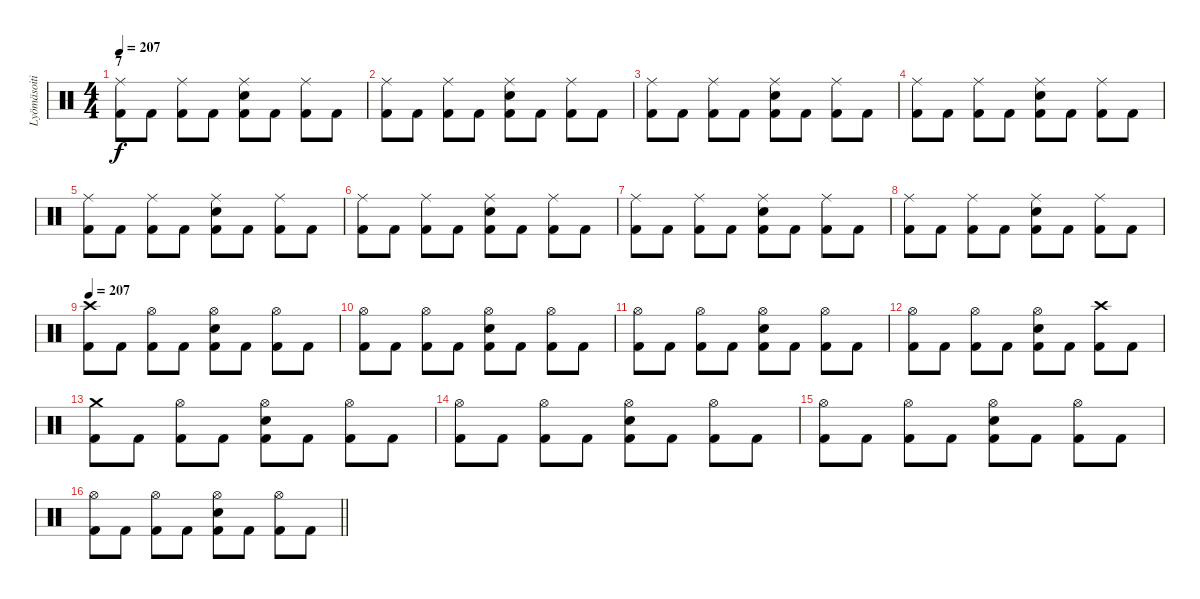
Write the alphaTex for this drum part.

\track ("Lyömäsoitin" "Lyömäsoiti") {instrument percussion}
\staff {score}
\articulation defaults
\ts (4 4)
\section ("" "7")
\tempo 207
\clef neutral
\ks c
("Ride (middle)" "Kick (hit) 2").8{dy f} "Kick (hit) 2".8 ("Ride (middle)" "Kick (hit) 2").8 "Kick (hit) 2".8 ("Ride (middle)" "Snare (hit) 2" "Kick (hit) 2").8 "Kick (hit) 2".8 ("Ride (middle)" "Kick (hit) 2").8 "Kick (hit) 2".8 |
("Ride (middle)" "Kick (hit) 2").8 "Kick (hit) 2".8 ("Ride (middle)" "Kick (hit) 2").8 "Kick (hit) 2".8 ("Ride (middle)" "Snare (hit) 2" "Kick (hit) 2").8 "Kick (hit) 2".8 ("Ride (middle)" "Kick (hit) 2").8 "Kick (hit) 2".8 |
("Ride (middle)" "Kick (hit) 2").8 "Kick (hit) 2".8 ("Ride (middle)" "Kick (hit) 2").8 "Kick (hit) 2".8 ("Ride (middle)" "Snare (hit) 2" "Kick (hit) 2").8 "Kick (hit) 2".8 ("Ride (middle)" "Kick (hit) 2").8 "Kick (hit) 2".8 |
("Ride (middle)" "Kick (hit) 2").8 "Kick (hit) 2".8 ("Ride (middle)" "Kick (hit) 2").8 "Kick (hit) 2".8 ("Ride (middle)" "Snare (hit) 2" "Kick (hit) 2").8 "Kick (hit) 2".8 ("Ride (middle)" "Kick (hit) 2").8 "Kick (hit) 2".8 |
("Ride (middle)" "Kick (hit) 2").8 "Kick (hit) 2".8 ("Ride (middle)" "Kick (hit) 2").8 "Kick (hit) 2".8 ("Ride (middle)" "Snare (hit) 2" "Kick (hit) 2").8 "Kick (hit) 2".8 ("Ride (middle)" "Kick (hit) 2").8 "Kick (hit) 2".8 |
("Ride (middle)" "Kick (hit) 2").8 "Kick (hit) 2".8 ("Ride (middle)" "Kick (hit) 2").8 "Kick (hit) 2".8 ("Ride (middle)" "Snare (hit) 2" "Kick (hit) 2").8 "Kick (hit) 2".8 ("Ride (middle)" "Kick (hit) 2").8 "Kick (hit) 2".8 |
("Ride (middle)" "Kick (hit) 2").8 "Kick (hit) 2".8 ("Ride (middle)" "Kick (hit) 2").8 "Kick (hit) 2".8 ("Ride (middle)" "Snare (hit) 2" "Kick (hit) 2").8 "Kick (hit) 2".8 ("Ride (middle)" "Kick (hit) 2").8 "Kick (hit) 2".8 |
("Ride (middle)" "Kick (hit) 2").8 "Kick (hit) 2".8 ("Ride (middle)" "Kick (hit) 2").8 "Kick (hit) 2".8 ("Ride (middle)" "Snare (hit) 2" "Kick (hit) 2").8 "Kick (hit) 2".8 ("Ride (middle)" "Kick (hit) 2").8 "Kick (hit) 2".8 |
\tempo 207
("Crash high (hit)" "Kick (hit) 2").8 "Kick (hit) 2".8 ("Hi-Hat (open)" "Kick (hit) 2").8 "Kick (hit) 2".8 ("Hi-Hat (open)" "Snare (hit) 2" "Kick (hit) 2").8 "Kick (hit) 2".8 ("Hi-Hat (open)" "Kick (hit) 2").8 "Kick (hit) 2".8 |
("Hi-Hat (open)" "Kick (hit) 2").8 "Kick (hit) 2".8 ("Hi-Hat (open)" "Kick (hit) 2").8 "Kick (hit) 2".8 ("Hi-Hat (open)" "Snare (hit) 2" "Kick (hit) 2").8 "Kick (hit) 2".8 ("Hi-Hat (open)" "Kick (hit) 2").8 "Kick (hit) 2".8 |
("Hi-Hat (open)" "Kick (hit) 2").8 "Kick (hit) 2".8 ("Hi-Hat (open)" "Kick (hit) 2").8 "Kick (hit) 2".8 ("Hi-Hat (open)" "Snare (hit) 2" "Kick (hit) 2").8 "Kick (hit) 2".8 ("Hi-Hat (open)" "Kick (hit) 2").8 "Kick (hit) 2".8 |
("Hi-Hat (open)" "Kick (hit) 2").8 "Kick (hit) 2".8 ("Hi-Hat (open)" "Kick (hit) 2").8 "Kick (hit) 2".8 ("Hi-Hat (open)" "Snare (hit) 2" "Kick (hit) 2").8 "Kick (hit) 2".8 ("Crash high (hit)" "Kick (hit) 2").8 "Kick (hit) 2".8 |
("Crash medium (hit)" "Kick (hit) 2").8 "Kick (hit) 2".8 ("Hi-Hat (open)" "Kick (hit) 2").8 "Kick (hit) 2".8 ("Hi-Hat (open)" "Snare (hit) 2" "Kick (hit) 2").8 "Kick (hit) 2".8 ("Hi-Hat (open)" "Kick (hit) 2").8 "Kick (hit) 2".8 |
("Hi-Hat (open)" "Kick (hit) 2").8 "Kick (hit) 2".8 ("Hi-Hat (open)" "Kick (hit) 2").8 "Kick (hit) 2".8 ("Hi-Hat (open)" "Snare (hit) 2" "Kick (hit) 2").8 "Kick (hit) 2".8 ("Hi-Hat (open)" "Kick (hit) 2").8 "Kick (hit) 2".8 |
("Hi-Hat (open)" "Kick (hit) 2").8 "Kick (hit) 2".8 ("Hi-Hat (open)" "Kick (hit) 2").8 "Kick (hit) 2".8 ("Hi-Hat (open)" "Snare (hit) 2" "Kick (hit) 2").8 "Kick (hit) 2".8 ("Hi-Hat (open)" "Kick (hit) 2").8 "Kick (hit) 2".8 |
\barLineRight lightlight
("Hi-Hat (open)" "Kick (hit) 2").8 "Kick (hit) 2".8 ("Hi-Hat (open)" "Kick (hit) 2").8 "Kick (hit) 2".8 ("Hi-Hat (open)" "Snare (hit) 2" "Kick (hit) 2").8 "Kick (hit) 2".8 ("Hi-Hat (open)" "Kick (hit) 2").8 "Kick (hit) 2".8
